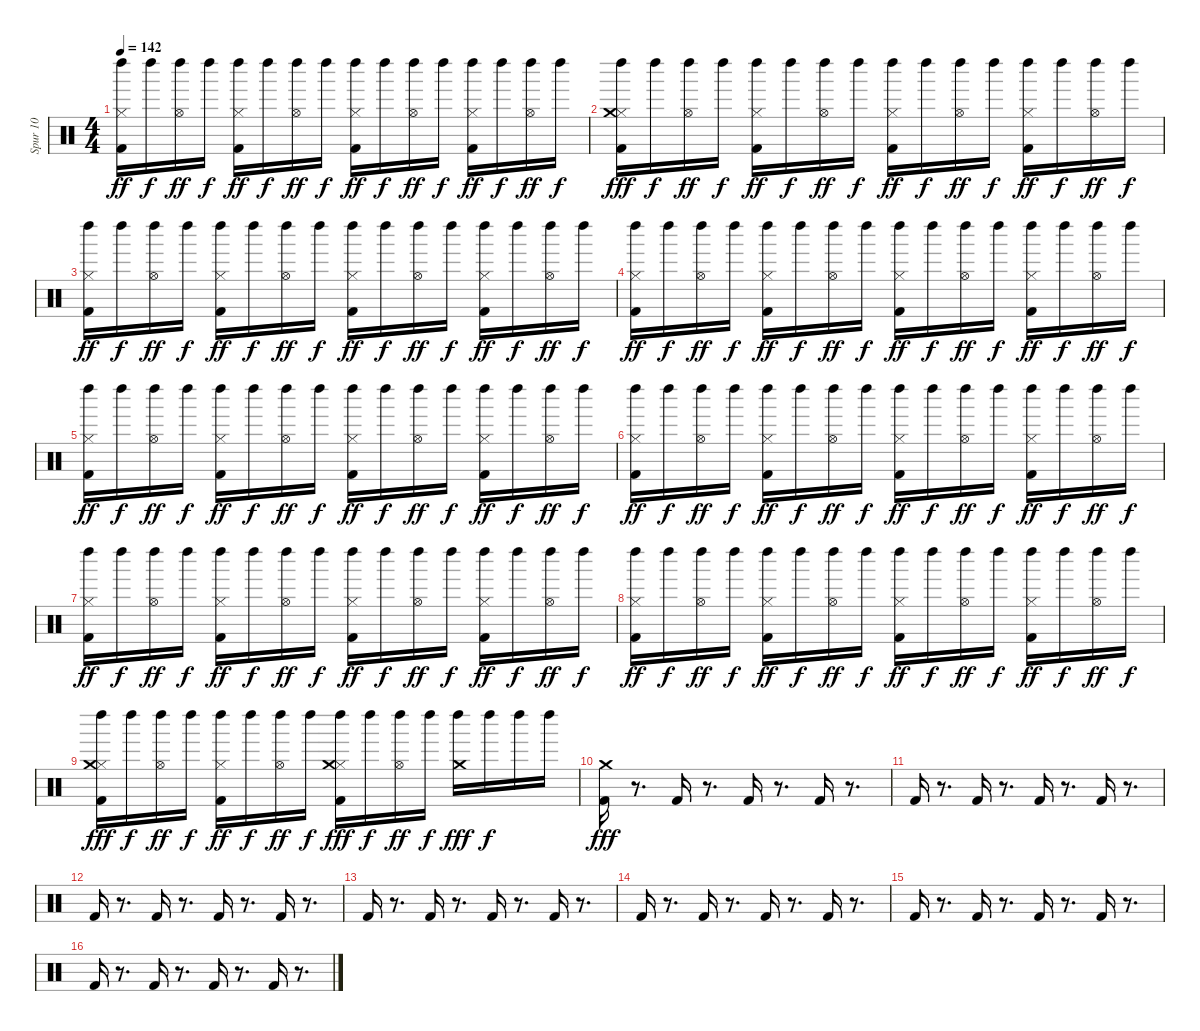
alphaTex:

\track ("Spur 10" "Spur 10") {instrument percussion}
\staff {score}
\articulation defaults
\ts (4 4)
\tempo 142
\clef neutral
\ks c
("Kick (hit) 2" "Hi-Hat (closed)" "Left Maraca (hit)").16{dy ff} "Left Maraca (hit)".16{dy f} ("Hi-Hat (open)" "Left Maraca (hit)").16{dy ff} "Left Maraca (hit)".16{dy f} ("Kick (hit) 2" "Hi-Hat (closed)" "Left Maraca (hit)").16{dy ff} "Left Maraca (hit)".16{dy f} ("Hi-Hat (open)" "Left Maraca (hit)").16{dy ff} "Left Maraca (hit)".16{dy f} ("Kick (hit) 2" "Hi-Hat (closed)" "Left Maraca (hit)").16{dy ff} "Left Maraca (hit)".16{dy f} ("Hi-Hat (open)" "Left Maraca (hit)").16{dy ff} "Left Maraca (hit)".16{dy f} ("Kick (hit) 2" "Hi-Hat (closed)" "Left Maraca (hit)").16{dy ff} "Left Maraca (hit)".16{dy f} ("Hi-Hat (open)" "Left Maraca (hit)").16{dy ff} "Left Maraca (hit)".16{dy f} |
("Kick (hit) 2" "Hi-Hat (closed)" "Crash medium (hit)" "Left Maraca (hit)").16{dy fff} "Left Maraca (hit)".16{dy f} ("Hi-Hat (open)" "Left Maraca (hit)").16{dy ff} "Left Maraca (hit)".16{dy f} ("Kick (hit) 2" "Hi-Hat (closed)" "Left Maraca (hit)").16{dy ff} "Left Maraca (hit)".16{dy f} ("Hi-Hat (open)" "Left Maraca (hit)").16{dy ff} "Left Maraca (hit)".16{dy f} ("Kick (hit) 2" "Hi-Hat (closed)" "Left Maraca (hit)").16{dy ff} "Left Maraca (hit)".16{dy f} ("Hi-Hat (open)" "Left Maraca (hit)").16{dy ff} "Left Maraca (hit)".16{dy f} ("Kick (hit) 2" "Hi-Hat (closed)" "Left Maraca (hit)").16{dy ff} "Left Maraca (hit)".16{dy f} ("Hi-Hat (open)" "Left Maraca (hit)").16{dy ff} "Left Maraca (hit)".16{dy f} |
("Kick (hit) 2" "Hi-Hat (closed)" "Left Maraca (hit)").16{dy ff} "Left Maraca (hit)".16{dy f} ("Hi-Hat (open)" "Left Maraca (hit)").16{dy ff} "Left Maraca (hit)".16{dy f} ("Kick (hit) 2" "Hi-Hat (closed)" "Left Maraca (hit)").16{dy ff} "Left Maraca (hit)".16{dy f} ("Hi-Hat (open)" "Left Maraca (hit)").16{dy ff} "Left Maraca (hit)".16{dy f} ("Kick (hit) 2" "Hi-Hat (closed)" "Left Maraca (hit)").16{dy ff} "Left Maraca (hit)".16{dy f} ("Hi-Hat (open)" "Left Maraca (hit)").16{dy ff} "Left Maraca (hit)".16{dy f} ("Kick (hit) 2" "Hi-Hat (closed)" "Left Maraca (hit)").16{dy ff} "Left Maraca (hit)".16{dy f} ("Hi-Hat (open)" "Left Maraca (hit)").16{dy ff} "Left Maraca (hit)".16{dy f} |
("Kick (hit) 2" "Hi-Hat (closed)" "Left Maraca (hit)").16{dy ff} "Left Maraca (hit)".16{dy f} ("Hi-Hat (open)" "Left Maraca (hit)").16{dy ff} "Left Maraca (hit)".16{dy f} ("Kick (hit) 2" "Hi-Hat (closed)" "Left Maraca (hit)").16{dy ff} "Left Maraca (hit)".16{dy f} ("Hi-Hat (open)" "Left Maraca (hit)").16{dy ff} "Left Maraca (hit)".16{dy f} ("Kick (hit) 2" "Hi-Hat (closed)" "Left Maraca (hit)").16{dy ff} "Left Maraca (hit)".16{dy f} ("Hi-Hat (open)" "Left Maraca (hit)").16{dy ff} "Left Maraca (hit)".16{dy f} ("Kick (hit) 2" "Hi-Hat (closed)" "Left Maraca (hit)").16{dy ff} "Left Maraca (hit)".16{dy f} ("Hi-Hat (open)" "Left Maraca (hit)").16{dy ff} "Left Maraca (hit)".16{dy f} |
("Kick (hit) 2" "Hi-Hat (closed)" "Left Maraca (hit)").16{dy ff} "Left Maraca (hit)".16{dy f} ("Hi-Hat (open)" "Left Maraca (hit)").16{dy ff} "Left Maraca (hit)".16{dy f} ("Kick (hit) 2" "Hi-Hat (closed)" "Left Maraca (hit)").16{dy ff} "Left Maraca (hit)".16{dy f} ("Hi-Hat (open)" "Left Maraca (hit)").16{dy ff} "Left Maraca (hit)".16{dy f} ("Kick (hit) 2" "Hi-Hat (closed)" "Left Maraca (hit)").16{dy ff} "Left Maraca (hit)".16{dy f} ("Hi-Hat (open)" "Left Maraca (hit)").16{dy ff} "Left Maraca (hit)".16{dy f} ("Kick (hit) 2" "Hi-Hat (closed)" "Left Maraca (hit)").16{dy ff} "Left Maraca (hit)".16{dy f} ("Hi-Hat (open)" "Left Maraca (hit)").16{dy ff} "Left Maraca (hit)".16{dy f} |
("Kick (hit) 2" "Hi-Hat (closed)" "Left Maraca (hit)").16{dy ff} "Left Maraca (hit)".16{dy f} ("Hi-Hat (open)" "Left Maraca (hit)").16{dy ff} "Left Maraca (hit)".16{dy f} ("Kick (hit) 2" "Hi-Hat (closed)" "Left Maraca (hit)").16{dy ff} "Left Maraca (hit)".16{dy f} ("Hi-Hat (open)" "Left Maraca (hit)").16{dy ff} "Left Maraca (hit)".16{dy f} ("Kick (hit) 2" "Hi-Hat (closed)" "Left Maraca (hit)").16{dy ff} "Left Maraca (hit)".16{dy f} ("Hi-Hat (open)" "Left Maraca (hit)").16{dy ff} "Left Maraca (hit)".16{dy f} ("Kick (hit) 2" "Hi-Hat (closed)" "Left Maraca (hit)").16{dy ff} "Left Maraca (hit)".16{dy f} ("Hi-Hat (open)" "Left Maraca (hit)").16{dy ff} "Left Maraca (hit)".16{dy f} |
("Kick (hit) 2" "Hi-Hat (closed)" "Left Maraca (hit)").16{dy ff} "Left Maraca (hit)".16{dy f} ("Hi-Hat (open)" "Left Maraca (hit)").16{dy ff} "Left Maraca (hit)".16{dy f} ("Kick (hit) 2" "Hi-Hat (closed)" "Left Maraca (hit)").16{dy ff} "Left Maraca (hit)".16{dy f} ("Hi-Hat (open)" "Left Maraca (hit)").16{dy ff} "Left Maraca (hit)".16{dy f} ("Kick (hit) 2" "Hi-Hat (closed)" "Left Maraca (hit)").16{dy ff} "Left Maraca (hit)".16{dy f} ("Hi-Hat (open)" "Left Maraca (hit)").16{dy ff} "Left Maraca (hit)".16{dy f} ("Kick (hit) 2" "Hi-Hat (closed)" "Left Maraca (hit)").16{dy ff} "Left Maraca (hit)".16{dy f} ("Hi-Hat (open)" "Left Maraca (hit)").16{dy ff} "Left Maraca (hit)".16{dy f} |
("Kick (hit) 2" "Hi-Hat (closed)" "Left Maraca (hit)").16{dy ff} "Left Maraca (hit)".16{dy f} ("Hi-Hat (open)" "Left Maraca (hit)").16{dy ff} "Left Maraca (hit)".16{dy f} ("Kick (hit) 2" "Hi-Hat (closed)" "Left Maraca (hit)").16{dy ff} "Left Maraca (hit)".16{dy f} ("Hi-Hat (open)" "Left Maraca (hit)").16{dy ff} "Left Maraca (hit)".16{dy f} ("Kick (hit) 2" "Hi-Hat (closed)" "Left Maraca (hit)").16{dy ff} "Left Maraca (hit)".16{dy f} ("Hi-Hat (open)" "Left Maraca (hit)").16{dy ff} "Left Maraca (hit)".16{dy f} ("Kick (hit) 2" "Hi-Hat (closed)" "Left Maraca (hit)").16{dy ff} "Left Maraca (hit)".16{dy f} ("Hi-Hat (open)" "Left Maraca (hit)").16{dy ff} "Left Maraca (hit)".16{dy f} |
("Kick (hit) 2" "Hi-Hat (closed)" "Crash medium (hit)" "Left Maraca (hit)").16{dy fff} "Left Maraca (hit)".16{dy f} ("Hi-Hat (open)" "Left Maraca (hit)").16{dy ff} "Left Maraca (hit)".16{dy f} ("Kick (hit) 2" "Hi-Hat (closed)" "Left Maraca (hit)").16{dy ff} "Left Maraca (hit)".16{dy f} ("Hi-Hat (open)" "Left Maraca (hit)").16{dy ff} "Left Maraca (hit)".16{dy f} ("Kick (hit) 2" "Hi-Hat (closed)" "Crash medium (hit)" "Left Maraca (hit)").16{dy fff} "Left Maraca (hit)".16{dy f} ("Hi-Hat (open)" "Left Maraca (hit)").16{dy ff} "Left Maraca (hit)".16{dy f} ("Crash medium (hit)" "Left Maraca (hit)").16{dy fff} "Left Maraca (hit)".16{dy f} "Left Maraca (hit)".16 "Left Maraca (hit)".16 |
("Kick (hit) 2" "Crash medium (hit)").16{dy fff} r.8{d} "Kick (hit) 2".16 r.8{d} "Kick (hit) 2".16 r.8{d} "Kick (hit) 2".16 r.8{d} |
"Kick (hit) 2".16 r.8{d} "Kick (hit) 2".16 r.8{d} "Kick (hit) 2".16 r.8{d} "Kick (hit) 2".16 r.8{d} |
"Kick (hit) 2".16 r.8{d} "Kick (hit) 2".16 r.8{d} "Kick (hit) 2".16 r.8{d} "Kick (hit) 2".16 r.8{d} |
"Kick (hit) 2".16 r.8{d} "Kick (hit) 2".16 r.8{d} "Kick (hit) 2".16 r.8{d} "Kick (hit) 2".16 r.8{d} |
"Kick (hit) 2".16 r.8{d} "Kick (hit) 2".16 r.8{d} "Kick (hit) 2".16 r.8{d} "Kick (hit) 2".16 r.8{d} |
"Kick (hit) 2".16 r.8{d} "Kick (hit) 2".16 r.8{d} "Kick (hit) 2".16 r.8{d} "Kick (hit) 2".16 r.8{d} |
"Kick (hit) 2".16 r.8{d} "Kick (hit) 2".16 r.8{d} "Kick (hit) 2".16 r.8{d} "Kick (hit) 2".16 r.8{d}
